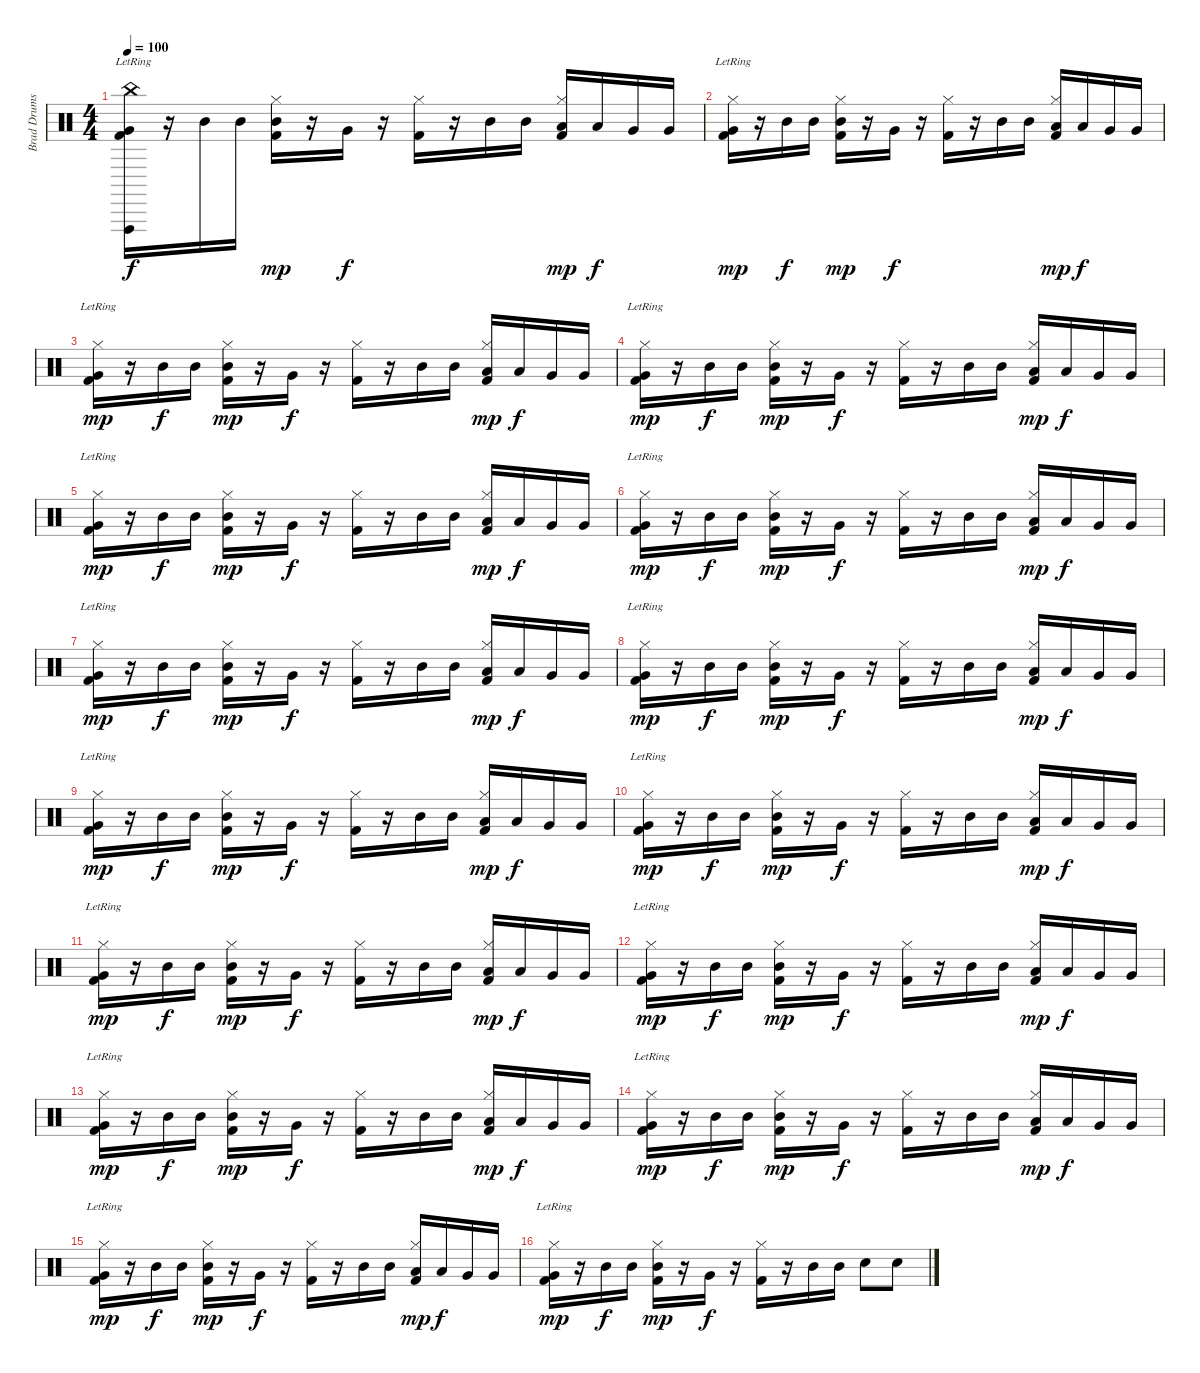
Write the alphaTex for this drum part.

\track ("Brad Drums" "Brad Drums") {instrument percussion}
\staff {score}
\articulation defaults
\ts (4 4)
\tempo 100
\clef neutral
\ks c
("China (hit)"{lr} "Vibraslap (hit)"{lr} "Very Low Tom (hit)" "Kick (hit) 2").16{dy f} r.16 "Mid Tom (hit)".16 "Mid Tom (hit)".16 ("Hi-Hat (closed)" "Mid Tom (hit)" "Kick (hit) 2").16{dy mp} r.16 "Very Low Tom (hit)".16{dy f} r.16 ("Hi-Hat (closed)" "Kick (hit) 2").16 r.16 "Mid Tom (hit)".16 "Mid Tom (hit)".16 ("Hi-Hat (closed)" "Low Tom (hit)" "Kick (hit) 2").16{dy mp} "Low Tom (hit)".16{dy f} "Very Low Tom (hit)".16 "Very Low Tom (hit)".16 |
("Hi-Hat (closed)"{lr} "Very Low Tom (hit)" "Kick (hit) 2").16{dy mp} r.16 "Mid Tom (hit)".16{dy f} "Mid Tom (hit)".16 ("Hi-Hat (closed)" "Mid Tom (hit)" "Kick (hit) 2").16{dy mp} r.16 "Very Low Tom (hit)".16{dy f} r.16 ("Hi-Hat (closed)" "Kick (hit) 2").16 r.16 "Mid Tom (hit)".16 "Mid Tom (hit)".16 ("Hi-Hat (closed)" "Low Tom (hit)" "Kick (hit) 2").16{dy mp} "Low Tom (hit)".16{dy f} "Very Low Tom (hit)".16 "Very Low Tom (hit)".16 |
("Hi-Hat (closed)"{lr} "Very Low Tom (hit)" "Kick (hit) 2").16{dy mp} r.16 "Mid Tom (hit)".16{dy f} "Mid Tom (hit)".16 ("Hi-Hat (closed)" "Mid Tom (hit)" "Kick (hit) 2").16{dy mp} r.16 "Very Low Tom (hit)".16{dy f} r.16 ("Hi-Hat (closed)" "Kick (hit) 2").16 r.16 "Mid Tom (hit)".16 "Mid Tom (hit)".16 ("Hi-Hat (closed)" "Low Tom (hit)" "Kick (hit) 2").16{dy mp} "Low Tom (hit)".16{dy f} "Very Low Tom (hit)".16 "Very Low Tom (hit)".16 |
("Hi-Hat (closed)"{lr} "Very Low Tom (hit)" "Kick (hit) 2").16{dy mp} r.16 "Mid Tom (hit)".16{dy f} "Mid Tom (hit)".16 ("Hi-Hat (closed)" "Mid Tom (hit)" "Kick (hit) 2").16{dy mp} r.16 "Very Low Tom (hit)".16{dy f} r.16 ("Hi-Hat (closed)" "Kick (hit) 2").16 r.16 "Mid Tom (hit)".16 "Mid Tom (hit)".16 ("Hi-Hat (closed)" "Low Tom (hit)" "Kick (hit) 2").16{dy mp} "Low Tom (hit)".16{dy f} "Very Low Tom (hit)".16 "Very Low Tom (hit)".16 |
("Hi-Hat (closed)"{lr} "Very Low Tom (hit)" "Kick (hit) 2").16{dy mp} r.16 "Mid Tom (hit)".16{dy f} "Mid Tom (hit)".16 ("Hi-Hat (closed)" "Mid Tom (hit)" "Kick (hit) 2").16{dy mp} r.16 "Very Low Tom (hit)".16{dy f} r.16 ("Hi-Hat (closed)" "Kick (hit) 2").16 r.16 "Mid Tom (hit)".16 "Mid Tom (hit)".16 ("Hi-Hat (closed)" "Low Tom (hit)" "Kick (hit) 2").16{dy mp} "Low Tom (hit)".16{dy f} "Very Low Tom (hit)".16 "Very Low Tom (hit)".16 |
("Hi-Hat (closed)"{lr} "Very Low Tom (hit)" "Kick (hit) 2").16{dy mp} r.16 "Mid Tom (hit)".16{dy f} "Mid Tom (hit)".16 ("Hi-Hat (closed)" "Mid Tom (hit)" "Kick (hit) 2").16{dy mp} r.16 "Very Low Tom (hit)".16{dy f} r.16 ("Hi-Hat (closed)" "Kick (hit) 2").16 r.16 "Mid Tom (hit)".16 "Mid Tom (hit)".16 ("Hi-Hat (closed)" "Low Tom (hit)" "Kick (hit) 2").16{dy mp} "Low Tom (hit)".16{dy f} "Very Low Tom (hit)".16 "Very Low Tom (hit)".16 |
("Hi-Hat (closed)"{lr} "Very Low Tom (hit)" "Kick (hit) 2").16{dy mp} r.16 "Mid Tom (hit)".16{dy f} "Mid Tom (hit)".16 ("Hi-Hat (closed)" "Mid Tom (hit)" "Kick (hit) 2").16{dy mp} r.16 "Very Low Tom (hit)".16{dy f} r.16 ("Hi-Hat (closed)" "Kick (hit) 2").16 r.16 "Mid Tom (hit)".16 "Mid Tom (hit)".16 ("Hi-Hat (closed)" "Low Tom (hit)" "Kick (hit) 2").16{dy mp} "Low Tom (hit)".16{dy f} "Very Low Tom (hit)".16 "Very Low Tom (hit)".16 |
("Hi-Hat (closed)"{lr} "Very Low Tom (hit)" "Kick (hit) 2").16{dy mp} r.16 "Mid Tom (hit)".16{dy f} "Mid Tom (hit)".16 ("Hi-Hat (closed)" "Mid Tom (hit)" "Kick (hit) 2").16{dy mp} r.16 "Very Low Tom (hit)".16{dy f} r.16 ("Hi-Hat (closed)" "Kick (hit) 2").16 r.16 "Mid Tom (hit)".16 "Mid Tom (hit)".16 ("Hi-Hat (closed)" "Low Tom (hit)" "Kick (hit) 2").16{dy mp} "Low Tom (hit)".16{dy f} "Very Low Tom (hit)".16 "Very Low Tom (hit)".16 |
("Hi-Hat (closed)"{lr} "Very Low Tom (hit)" "Kick (hit) 2").16{dy mp} r.16 "Mid Tom (hit)".16{dy f} "Mid Tom (hit)".16 ("Hi-Hat (closed)" "Mid Tom (hit)" "Kick (hit) 2").16{dy mp} r.16 "Very Low Tom (hit)".16{dy f} r.16 ("Hi-Hat (closed)" "Kick (hit) 2").16 r.16 "Mid Tom (hit)".16 "Mid Tom (hit)".16 ("Hi-Hat (closed)" "Low Tom (hit)" "Kick (hit) 2").16{dy mp} "Low Tom (hit)".16{dy f} "Very Low Tom (hit)".16 "Very Low Tom (hit)".16 |
("Hi-Hat (closed)"{lr} "Very Low Tom (hit)" "Kick (hit) 2").16{dy mp} r.16 "Mid Tom (hit)".16{dy f} "Mid Tom (hit)".16 ("Hi-Hat (closed)" "Mid Tom (hit)" "Kick (hit) 2").16{dy mp} r.16 "Very Low Tom (hit)".16{dy f} r.16 ("Hi-Hat (closed)" "Kick (hit) 2").16 r.16 "Mid Tom (hit)".16 "Mid Tom (hit)".16 ("Hi-Hat (closed)" "Low Tom (hit)" "Kick (hit) 2").16{dy mp} "Low Tom (hit)".16{dy f} "Very Low Tom (hit)".16 "Very Low Tom (hit)".16 |
("Hi-Hat (closed)"{lr} "Very Low Tom (hit)" "Kick (hit) 2").16{dy mp} r.16 "Mid Tom (hit)".16{dy f} "Mid Tom (hit)".16 ("Hi-Hat (closed)" "Mid Tom (hit)" "Kick (hit) 2").16{dy mp} r.16 "Very Low Tom (hit)".16{dy f} r.16 ("Hi-Hat (closed)" "Kick (hit) 2").16 r.16 "Mid Tom (hit)".16 "Mid Tom (hit)".16 ("Hi-Hat (closed)" "Low Tom (hit)" "Kick (hit) 2").16{dy mp} "Low Tom (hit)".16{dy f} "Very Low Tom (hit)".16 "Very Low Tom (hit)".16 |
("Hi-Hat (closed)"{lr} "Very Low Tom (hit)" "Kick (hit) 2").16{dy mp} r.16 "Mid Tom (hit)".16{dy f} "Mid Tom (hit)".16 ("Hi-Hat (closed)" "Mid Tom (hit)" "Kick (hit) 2").16{dy mp} r.16 "Very Low Tom (hit)".16{dy f} r.16 ("Hi-Hat (closed)" "Kick (hit) 2").16 r.16 "Mid Tom (hit)".16 "Mid Tom (hit)".16 ("Hi-Hat (closed)" "Low Tom (hit)" "Kick (hit) 2").16{dy mp} "Low Tom (hit)".16{dy f} "Very Low Tom (hit)".16 "Very Low Tom (hit)".16 |
("Hi-Hat (closed)"{lr} "Very Low Tom (hit)" "Kick (hit) 2").16{dy mp} r.16 "Mid Tom (hit)".16{dy f} "Mid Tom (hit)".16 ("Hi-Hat (closed)" "Mid Tom (hit)" "Kick (hit) 2").16{dy mp} r.16 "Very Low Tom (hit)".16{dy f} r.16 ("Hi-Hat (closed)" "Kick (hit) 2").16 r.16 "Mid Tom (hit)".16 "Mid Tom (hit)".16 ("Hi-Hat (closed)" "Low Tom (hit)" "Kick (hit) 2").16{dy mp} "Low Tom (hit)".16{dy f} "Very Low Tom (hit)".16 "Very Low Tom (hit)".16 |
("Hi-Hat (closed)"{lr} "Very Low Tom (hit)" "Kick (hit) 2").16{dy mp} r.16 "Mid Tom (hit)".16{dy f} "Mid Tom (hit)".16 ("Hi-Hat (closed)" "Mid Tom (hit)" "Kick (hit) 2").16{dy mp} r.16 "Very Low Tom (hit)".16{dy f} r.16 ("Hi-Hat (closed)" "Kick (hit) 2").16 r.16 "Mid Tom (hit)".16 "Mid Tom (hit)".16 ("Hi-Hat (closed)" "Low Tom (hit)" "Kick (hit) 2").16{dy mp} "Low Tom (hit)".16{dy f} "Very Low Tom (hit)".16 "Very Low Tom (hit)".16 |
("Hi-Hat (closed)"{lr} "Very Low Tom (hit)" "Kick (hit) 2").16{dy mp} r.16 "Mid Tom (hit)".16{dy f} "Mid Tom (hit)".16 ("Hi-Hat (closed)" "Mid Tom (hit)" "Kick (hit) 2").16{dy mp} r.16 "Very Low Tom (hit)".16{dy f} r.16 ("Hi-Hat (closed)" "Kick (hit) 2").16 r.16 "Mid Tom (hit)".16 "Mid Tom (hit)".16 ("Hi-Hat (closed)" "Low Tom (hit)" "Kick (hit) 2").16{dy mp} "Low Tom (hit)".16{dy f} "Very Low Tom (hit)".16 "Very Low Tom (hit)".16 |
("Hi-Hat (closed)"{lr} "Very Low Tom (hit)" "Kick (hit) 2").16{dy mp} r.16 "Mid Tom (hit)".16{dy f} "Mid Tom (hit)".16 ("Hi-Hat (closed)" "Mid Tom (hit)" "Kick (hit) 2").16{dy mp} r.16 "Very Low Tom (hit)".16{dy f} r.16 ("Hi-Hat (closed)" "Kick (hit) 2").16 r.16 "Mid Tom (hit)".16 "Mid Tom (hit)".16 "Electric Snare (hit)".8 "Electric Snare (hit)".8
